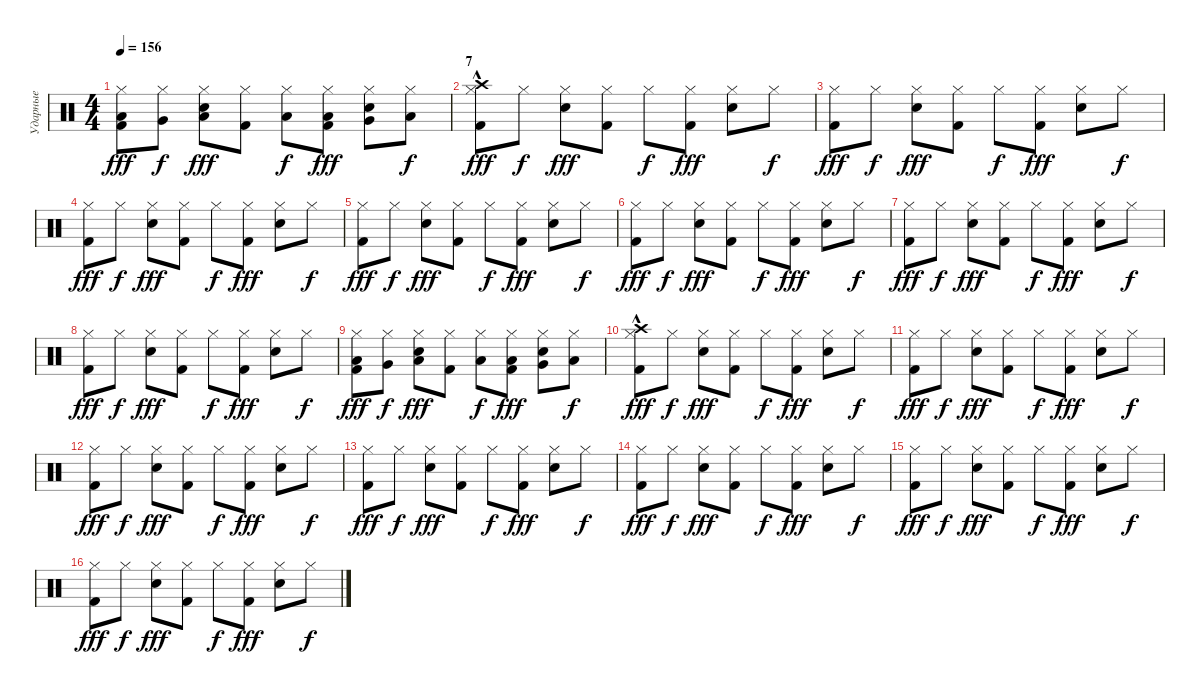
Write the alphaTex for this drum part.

\track ("Ударные" "Ударные") {instrument percussion}
\staff {score}
\articulation defaults
\ts (4 4)
\tempo 156
\clef neutral
\ks c
("Hi-Hat (closed)" "Kick (hit) 2" "Low Floor Tom (hit)").8{dy fff} ("Hi-Hat (closed)" "Very Low Tom (hit)").8{dy f} ("Hi-Hat (closed)" "Snare (hit) 2" "Low Tom (hit)").8{dy fff} ("Hi-Hat (closed)" "Kick (hit) 2").8 ("Hi-Hat (closed)" "Low Floor Tom (hit)").8{dy f} ("Hi-Hat (closed)" "Kick (hit) 2" "Low Floor Tom (hit)").8{dy fff} ("Hi-Hat (closed)" "Snare (hit) 2" "Very Low Tom (hit)").8 ("Hi-Hat (closed)" "Low Tom (hit)").8{dy f} |
\section ("" "7")
("Hi-Hat (closed)" "Kick (hit) 2" "Crash high (hit)"{hac}).8{dy fff} "Hi-Hat (closed)".8{dy f} ("Hi-Hat (closed)" "Snare (hit) 2").8{dy fff} ("Hi-Hat (closed)" "Kick (hit) 2").8 "Hi-Hat (closed)".8{dy f} ("Hi-Hat (closed)" "Kick (hit) 2").8{dy fff} ("Hi-Hat (closed)" "Snare (hit) 2").8 "Hi-Hat (closed)".8{dy f} |
("Hi-Hat (closed)" "Kick (hit) 2").8{dy fff} "Hi-Hat (closed)".8{dy f} ("Hi-Hat (closed)" "Snare (hit) 2").8{dy fff} ("Hi-Hat (closed)" "Kick (hit) 2").8 "Hi-Hat (closed)".8{dy f} ("Hi-Hat (closed)" "Kick (hit) 2").8{dy fff} ("Hi-Hat (closed)" "Snare (hit) 2").8 "Hi-Hat (closed)".8{dy f} |
("Hi-Hat (closed)" "Kick (hit) 2").8{dy fff} "Hi-Hat (closed)".8{dy f} ("Hi-Hat (closed)" "Snare (hit) 2").8{dy fff} ("Hi-Hat (closed)" "Kick (hit) 2").8 "Hi-Hat (closed)".8{dy f} ("Hi-Hat (closed)" "Kick (hit) 2").8{dy fff} ("Hi-Hat (closed)" "Snare (hit) 2").8 "Hi-Hat (closed)".8{dy f} |
("Hi-Hat (closed)" "Kick (hit) 2").8{dy fff} "Hi-Hat (closed)".8{dy f} ("Hi-Hat (closed)" "Snare (hit) 2").8{dy fff} ("Hi-Hat (closed)" "Kick (hit) 2").8 "Hi-Hat (closed)".8{dy f} ("Hi-Hat (closed)" "Kick (hit) 2").8{dy fff} ("Hi-Hat (closed)" "Snare (hit) 2").8 "Hi-Hat (closed)".8{dy f} |
("Hi-Hat (closed)" "Kick (hit) 2").8{dy fff} "Hi-Hat (closed)".8{dy f} ("Hi-Hat (closed)" "Snare (hit) 2").8{dy fff} ("Hi-Hat (closed)" "Kick (hit) 2").8 "Hi-Hat (closed)".8{dy f} ("Hi-Hat (closed)" "Kick (hit) 2").8{dy fff} ("Hi-Hat (closed)" "Snare (hit) 2").8 "Hi-Hat (closed)".8{dy f} |
("Hi-Hat (closed)" "Kick (hit) 2").8{dy fff} "Hi-Hat (closed)".8{dy f} ("Hi-Hat (closed)" "Snare (hit) 2").8{dy fff} ("Hi-Hat (closed)" "Kick (hit) 2").8 "Hi-Hat (closed)".8{dy f} ("Hi-Hat (closed)" "Kick (hit) 2").8{dy fff} ("Hi-Hat (closed)" "Snare (hit) 2").8 "Hi-Hat (closed)".8{dy f} |
("Hi-Hat (closed)" "Kick (hit) 2").8{dy fff} "Hi-Hat (closed)".8{dy f} ("Hi-Hat (closed)" "Snare (hit) 2").8{dy fff} ("Hi-Hat (closed)" "Kick (hit) 2").8 "Hi-Hat (closed)".8{dy f} ("Hi-Hat (closed)" "Kick (hit) 2").8{dy fff} ("Hi-Hat (closed)" "Snare (hit) 2").8 "Hi-Hat (closed)".8{dy f} |
("Hi-Hat (closed)" "Kick (hit) 2" "Low Floor Tom (hit)").8{dy fff} ("Hi-Hat (closed)" "Very Low Tom (hit)").8{dy f} ("Hi-Hat (closed)" "Snare (hit) 2" "Low Tom (hit)").8{dy fff} ("Hi-Hat (closed)" "Kick (hit) 2").8 ("Hi-Hat (closed)" "Low Floor Tom (hit)").8{dy f} ("Hi-Hat (closed)" "Kick (hit) 2" "Low Floor Tom (hit)").8{dy fff} ("Hi-Hat (closed)" "Snare (hit) 2" "Very Low Tom (hit)").8 ("Hi-Hat (closed)" "Low Tom (hit)").8{dy f} |
("Hi-Hat (closed)" "Kick (hit) 2" "Crash high (hit)"{hac}).8{dy fff} "Hi-Hat (closed)".8{dy f} ("Hi-Hat (closed)" "Snare (hit) 2").8{dy fff} ("Hi-Hat (closed)" "Kick (hit) 2").8 "Hi-Hat (closed)".8{dy f} ("Hi-Hat (closed)" "Kick (hit) 2").8{dy fff} ("Hi-Hat (closed)" "Snare (hit) 2").8 "Hi-Hat (closed)".8{dy f} |
("Hi-Hat (closed)" "Kick (hit) 2").8{dy fff} "Hi-Hat (closed)".8{dy f} ("Hi-Hat (closed)" "Snare (hit) 2").8{dy fff} ("Hi-Hat (closed)" "Kick (hit) 2").8 "Hi-Hat (closed)".8{dy f} ("Hi-Hat (closed)" "Kick (hit) 2").8{dy fff} ("Hi-Hat (closed)" "Snare (hit) 2").8 "Hi-Hat (closed)".8{dy f} |
("Hi-Hat (closed)" "Kick (hit) 2").8{dy fff} "Hi-Hat (closed)".8{dy f} ("Hi-Hat (closed)" "Snare (hit) 2").8{dy fff} ("Hi-Hat (closed)" "Kick (hit) 2").8 "Hi-Hat (closed)".8{dy f} ("Hi-Hat (closed)" "Kick (hit) 2").8{dy fff} ("Hi-Hat (closed)" "Snare (hit) 2").8 "Hi-Hat (closed)".8{dy f} |
("Hi-Hat (closed)" "Kick (hit) 2").8{dy fff} "Hi-Hat (closed)".8{dy f} ("Hi-Hat (closed)" "Snare (hit) 2").8{dy fff} ("Hi-Hat (closed)" "Kick (hit) 2").8 "Hi-Hat (closed)".8{dy f} ("Hi-Hat (closed)" "Kick (hit) 2").8{dy fff} ("Hi-Hat (closed)" "Snare (hit) 2").8 "Hi-Hat (closed)".8{dy f} |
("Hi-Hat (closed)" "Kick (hit) 2").8{dy fff} "Hi-Hat (closed)".8{dy f} ("Hi-Hat (closed)" "Snare (hit) 2").8{dy fff} ("Hi-Hat (closed)" "Kick (hit) 2").8 "Hi-Hat (closed)".8{dy f} ("Hi-Hat (closed)" "Kick (hit) 2").8{dy fff} ("Hi-Hat (closed)" "Snare (hit) 2").8 "Hi-Hat (closed)".8{dy f} |
("Hi-Hat (closed)" "Kick (hit) 2").8{dy fff} "Hi-Hat (closed)".8{dy f} ("Hi-Hat (closed)" "Snare (hit) 2").8{dy fff} ("Hi-Hat (closed)" "Kick (hit) 2").8 "Hi-Hat (closed)".8{dy f} ("Hi-Hat (closed)" "Kick (hit) 2").8{dy fff} ("Hi-Hat (closed)" "Snare (hit) 2").8 "Hi-Hat (closed)".8{dy f} |
("Hi-Hat (closed)" "Kick (hit) 2").8{dy fff} "Hi-Hat (closed)".8{dy f} ("Hi-Hat (closed)" "Snare (hit) 2").8{dy fff} ("Hi-Hat (closed)" "Kick (hit) 2").8 "Hi-Hat (closed)".8{dy f} ("Hi-Hat (closed)" "Kick (hit) 2").8{dy fff} ("Hi-Hat (closed)" "Snare (hit) 2").8 "Hi-Hat (closed)".8{dy f}
